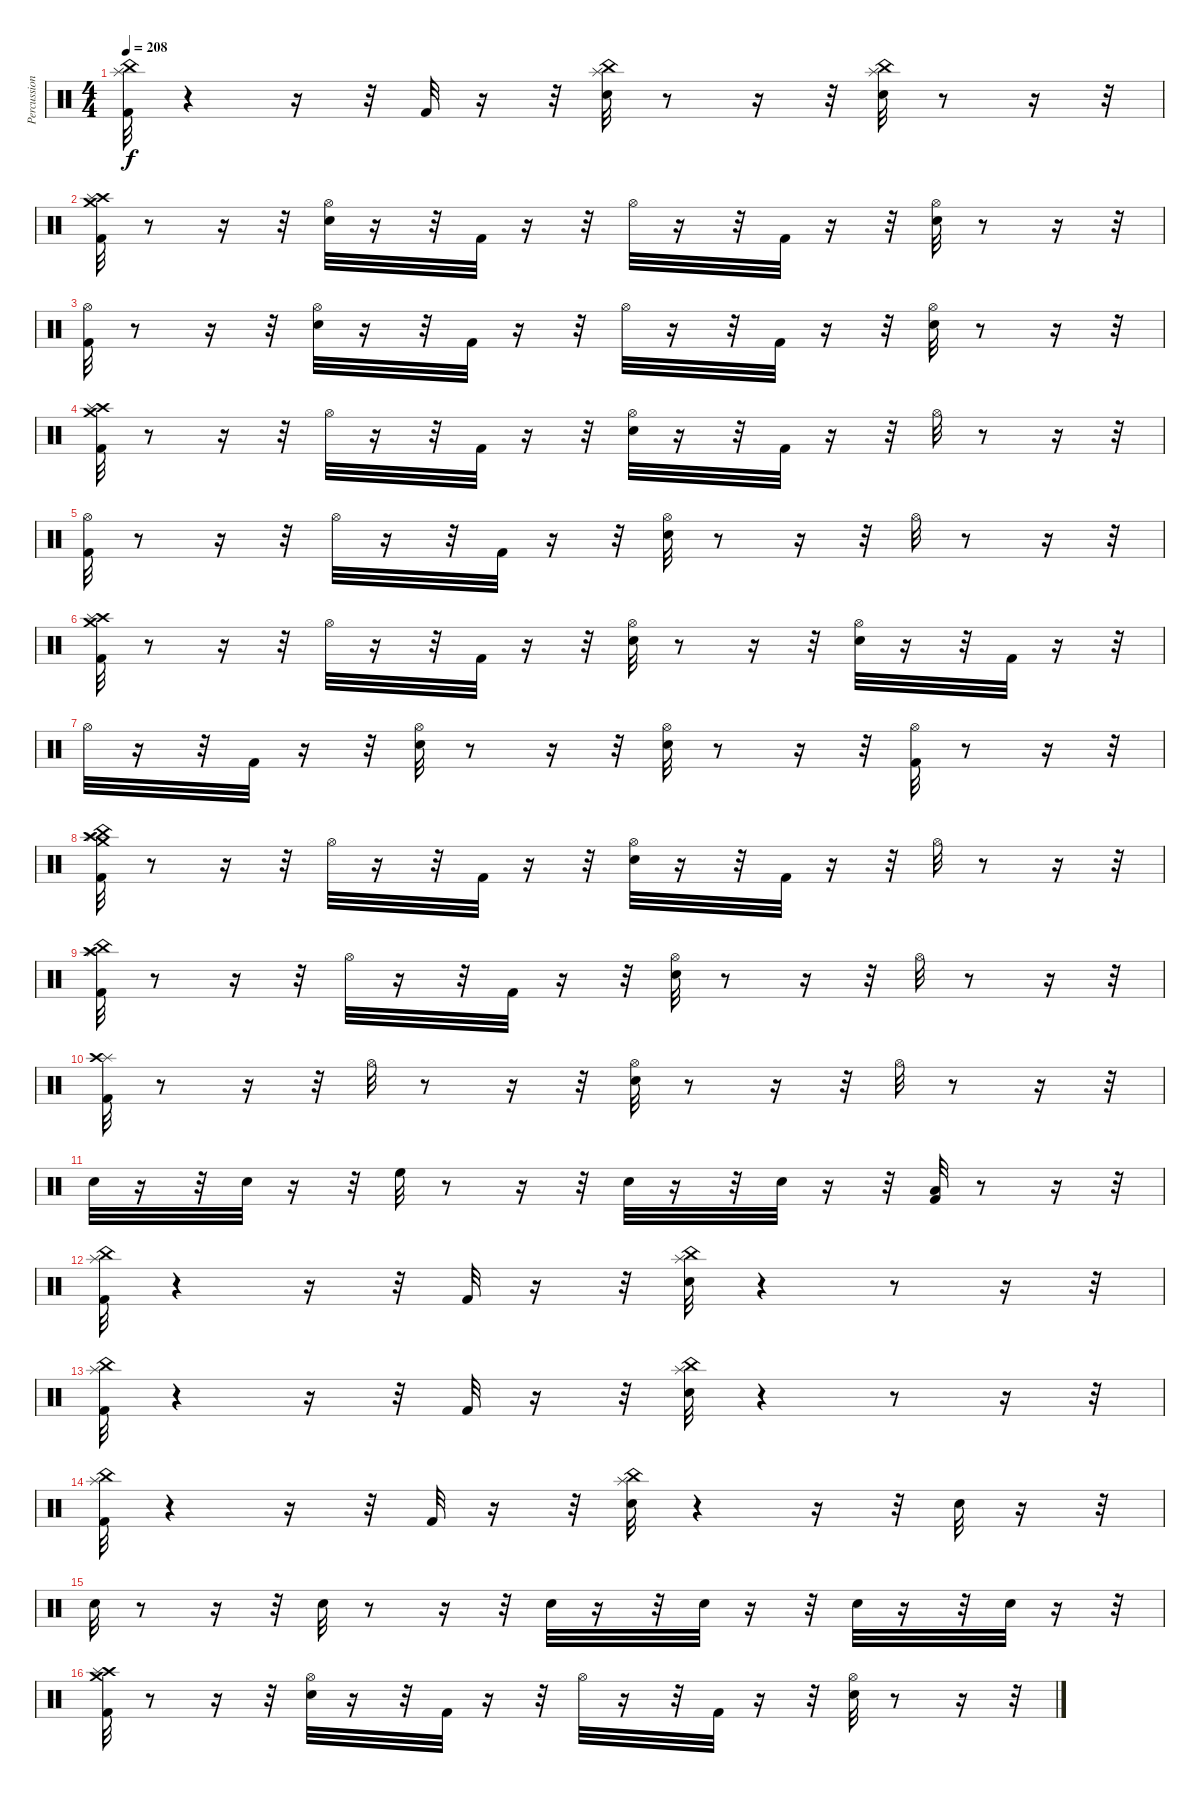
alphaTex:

\track ("Percussion" "Percussion") {instrument percussion}
\staff {score}
\articulation defaults
\ts (4 4)
\tempo 208
\clef neutral
\ks c
("Kick (hit) 2" "China (hit)" "Splash (hit)").32{dy f} r.4 r.16 r.32 "Kick (hit) 2".32 r.16 r.32 ("Snare (hit) 2" "China (hit)" "Splash (hit)").32 r.8 r.16 r.32 ("Splash (hit)" "China (hit)" "Snare (hit) 2").32 r.8 r.16 r.32 |
("Kick (hit) 2" "Crash high (hit)" "Crash medium (hit)" "Splash (hit)").32 r.8 r.16 r.32 ("Snare (hit) 2" "Hi-Hat (open)").32 r.16 r.32 "Kick (hit) 2".32 r.16 r.32 "Hi-Hat (open)".32 r.16 r.32 "Kick (hit) 2".32 r.16 r.32 ("Snare (hit) 2" "Hi-Hat (open)").32 r.8 r.16 r.32 |
("Kick (hit) 2" "Hi-Hat (open)").32 r.8 r.16 r.32 ("Snare (hit) 2" "Hi-Hat (open)").32 r.16 r.32 "Kick (hit) 2".32 r.16 r.32 "Hi-Hat (open)".32 r.16 r.32 "Kick (hit) 2".32 r.16 r.32 ("Snare (hit) 2" "Hi-Hat (open)").32 r.8 r.16 r.32 |
("Crash high (hit)" "Crash medium (hit)" "Splash (hit)" "Kick (hit) 2").32 r.8 r.16 r.32 "Hi-Hat (open)".32 r.16 r.32 "Kick (hit) 2".32 r.16 r.32 ("Hi-Hat (open)" "Snare (hit) 2").32 r.16 r.32 "Kick (hit) 2".32 r.16 r.32 "Hi-Hat (open)".32 r.8 r.16 r.32 |
("Hi-Hat (open)" "Kick (hit) 2").32 r.8 r.16 r.32 "Hi-Hat (open)".32 r.16 r.32 "Kick (hit) 2".32 r.16 r.32 ("Hi-Hat (open)" "Snare (hit) 2").32 r.8 r.16 r.32 "Hi-Hat (open)".32 r.8 r.16 r.32 |
("Crash high (hit)" "Splash (hit)" "Crash medium (hit)" "Kick (hit) 2").32 r.8 r.16 r.32 "Hi-Hat (open)".32 r.16 r.32 "Kick (hit) 2".32 r.16 r.32 ("Hi-Hat (open)" "Snare (hit) 2").32 r.8 r.16 r.32 ("Hi-Hat (open)" "Snare (hit) 2").32 r.16 r.32 "Kick (hit) 2".32 r.16 r.32 |
"Hi-Hat (open)".32 r.16 r.32 "Kick (hit) 2".32 r.16 r.32 ("Hi-Hat (open)" "Snare (hit) 2").32 r.8 r.16 r.32 ("Hi-Hat (open)" "Snare (hit) 2").32 r.8 r.16 r.32 ("Hi-Hat (open)" "Kick (hit) 2").32 r.8 r.16 r.32 |
("China (hit)" "Kick (hit) 2" "Crash high (hit)" "Splash (hit)" "Crash medium (hit)").32 r.8 r.16 r.32 "Hi-Hat (open)".32 r.16 r.32 "Kick (hit) 2".32 r.16 r.32 ("Hi-Hat (open)" "Snare (hit) 2").32 r.16 r.32 "Kick (hit) 2".32 r.16 r.32 "Hi-Hat (open)".32 r.8 r.16 r.32 |
("China (hit)" "Splash (hit)" "Crash high (hit)" "Kick (hit) 2").32 r.8 r.16 r.32 "Hi-Hat (open)".32 r.16 r.32 "Kick (hit) 2".32 r.16 r.32 ("Hi-Hat (open)" "Snare (hit) 2").32 r.8 r.16 r.32 "Hi-Hat (open)".32 r.8 r.16 r.32 |
("Kick (hit) 2" "Splash (hit)" "Crash high (hit)").32 r.8 r.16 r.32 "Hi-Hat (open)".32 r.8 r.16 r.32 ("Hi-Hat (open)" "Snare (hit) 2").32 r.8 r.16 r.32 "Hi-Hat (open)".32 r.8 r.16 r.32 |
"Snare (hit) 2".32 r.16 r.32 "Snare (hit) 2".32 r.16 r.32 "High Floor Tom (hit)".32 r.8 r.16 r.32 "Snare (hit) 2".32 r.16 r.32 "Snare (hit) 2".32 r.16 r.32 ("Low Floor Tom (hit)" "Kick (hit) 2").32 r.8 r.16 r.32 |
("Kick (hit) 2" "China (hit)" "Splash (hit)").32 r.4 r.16 r.32 "Kick (hit) 2".32 r.16 r.32 ("Snare (hit) 2" "China (hit)" "Splash (hit)").32 r.4 r.8 r.16 r.32 |
("Kick (hit) 2" "China (hit)" "Splash (hit)").32 r.4 r.16 r.32 "Kick (hit) 2".32 r.16 r.32 ("Snare (hit) 2" "China (hit)" "Splash (hit)").32 r.4 r.8 r.16 r.32 |
("Kick (hit) 2" "China (hit)" "Splash (hit)").32 r.4 r.16 r.32 "Kick (hit) 2".32 r.16 r.32 ("Snare (hit) 2" "China (hit)" "Splash (hit)").32 r.4 r.16 r.32 "Snare (hit) 2".32 r.16 r.32 |
"Snare (hit) 2".32 r.8 r.16 r.32 "Snare (hit) 2".32 r.8 r.16 r.32 "Snare (hit) 2".32 r.16 r.32 "Snare (hit) 2".32 r.16 r.32 "Snare (hit) 2".32 r.16 r.32 "Snare (hit) 2".32 r.16 r.32 |
("Kick (hit) 2" "Crash high (hit)" "Crash medium (hit)" "Splash (hit)").32 r.8 r.16 r.32 ("Snare (hit) 2" "Hi-Hat (open)").32 r.16 r.32 "Kick (hit) 2".32 r.16 r.32 "Hi-Hat (open)".32 r.16 r.32 "Kick (hit) 2".32 r.16 r.32 ("Snare (hit) 2" "Hi-Hat (open)").32 r.8 r.16 r.32
